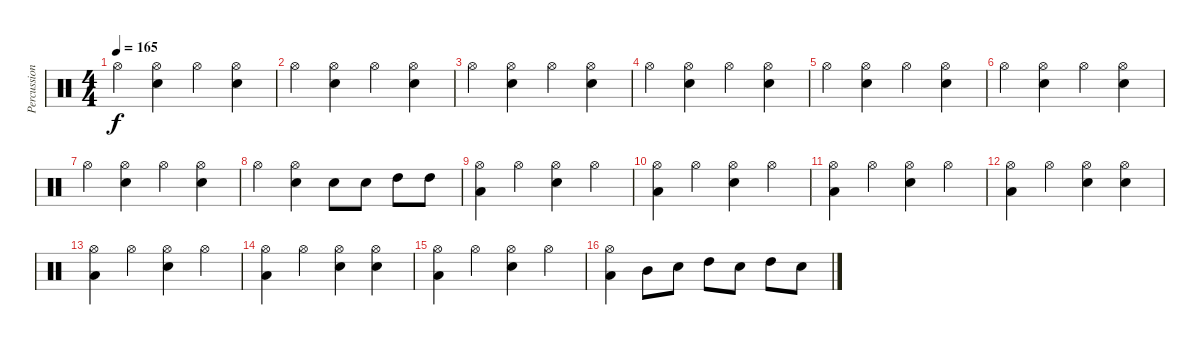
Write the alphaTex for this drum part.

\track ("Percussion" "Percussion") {instrument percussion}
\staff {score}
\articulation defaults
\ts (4 4)
\tempo 165
\clef neutral
\ks c "Hi-Hat (open)".4{dy f}
("Electric Snare (hit)" "Hi-Hat (open)").4 "Hi-Hat (open)".4 ("Electric Snare (hit)" "Hi-Hat (open)").4 |
"Hi-Hat (open)".4 ("Electric Snare (hit)" "Hi-Hat (open)").4 "Hi-Hat (open)".4 ("Electric Snare (hit)" "Hi-Hat (open)").4 |
"Hi-Hat (open)".4 ("Electric Snare (hit)" "Hi-Hat (open)").4 "Hi-Hat (open)".4 ("Electric Snare (hit)" "Hi-Hat (open)").4 |
"Hi-Hat (open)".4 ("Electric Snare (hit)" "Hi-Hat (open)").4 "Hi-Hat (open)".4 ("Electric Snare (hit)" "Hi-Hat (open)").4 |
"Hi-Hat (open)".4 ("Electric Snare (hit)" "Hi-Hat (open)").4 "Hi-Hat (open)".4 ("Electric Snare (hit)" "Hi-Hat (open)").4 |
"Hi-Hat (open)".4 ("Electric Snare (hit)" "Hi-Hat (open)").4 "Hi-Hat (open)".4 ("Electric Snare (hit)" "Hi-Hat (open)").4 |
"Hi-Hat (open)".4 ("Electric Snare (hit)" "Hi-Hat (open)").4 "Hi-Hat (open)".4 ("Electric Snare (hit)" "Hi-Hat (open)").4 |
"Hi-Hat (open)".4 ("Electric Snare (hit)" "Hi-Hat (open)").4 "Electric Snare (hit)".8 "Electric Snare (hit)".8 "High Tom (hit)".8 "High Tom (hit)".8 |
("Low Tom (hit)" "Hi-Hat (open)").4 "Hi-Hat (open)".4 ("Hi-Hat (open)" "Electric Snare (hit)").4 "Hi-Hat (open)".4 |
("Low Tom (hit)" "Hi-Hat (open)").4 "Hi-Hat (open)".4 ("Hi-Hat (open)" "Electric Snare (hit)").4 "Hi-Hat (open)".4 |
("Low Tom (hit)" "Hi-Hat (open)").4 "Hi-Hat (open)".4 ("Hi-Hat (open)" "Electric Snare (hit)").4 "Hi-Hat (open)".4 |
("Low Tom (hit)" "Hi-Hat (open)").4 "Hi-Hat (open)".4 ("Hi-Hat (open)" "Electric Snare (hit)").4 ("Hi-Hat (open)" "Electric Snare (hit)").4 |
("Low Tom (hit)" "Hi-Hat (open)").4 "Hi-Hat (open)".4 ("Hi-Hat (open)" "Electric Snare (hit)").4 "Hi-Hat (open)".4 |
("Low Tom (hit)" "Hi-Hat (open)").4 "Hi-Hat (open)".4 ("Hi-Hat (open)" "Electric Snare (hit)").4 ("Hi-Hat (open)" "Electric Snare (hit)").4 |
("Low Tom (hit)" "Hi-Hat (open)").4 "Hi-Hat (open)".4 ("Hi-Hat (open)" "Electric Snare (hit)").4 "Hi-Hat (open)".4 |
("Low Tom (hit)" "Hi-Hat (open)").4 "Mid Tom (hit)".8 "Electric Snare (hit)".8 "High Tom (hit)".8 "Electric Snare (hit)".8 "High Tom (hit)".8 "Electric Snare (hit)".8
